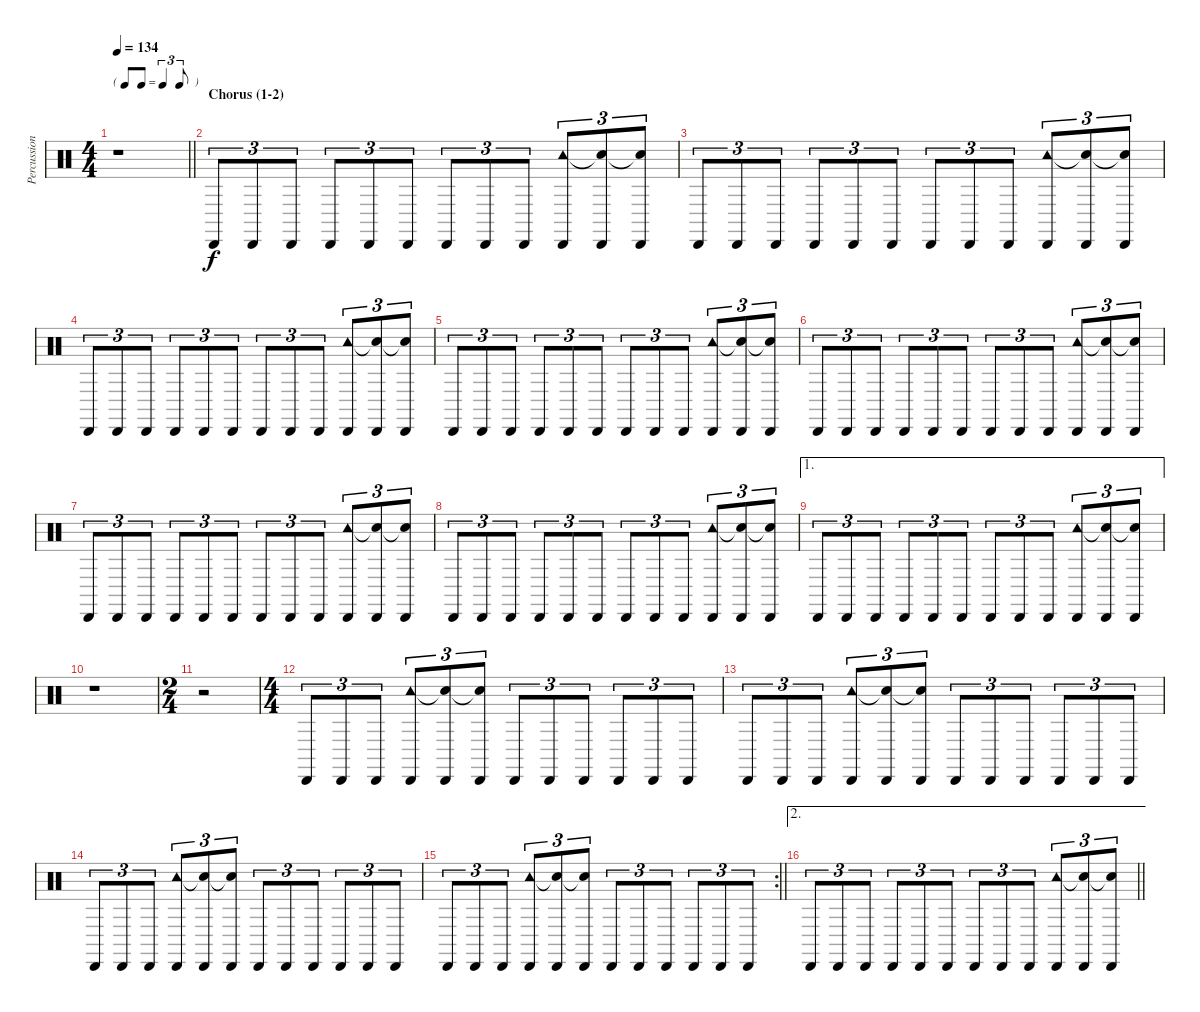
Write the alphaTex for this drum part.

\track ("Percussion" "Percussion") {instrument percussion}
\staff {score}
\articulation defaults
\ts (4 4)
\tf triplet8th
\tempo 134
\clef neutral
\barLineRight lightlight
\ks c
r.1{dy f} |
\section ("" "Chorus (1-2)")
"Cabasa (hit)".8{tu (3 2)} "Cabasa (hit)".8{tu (3 2)} "Cabasa (hit)".8{tu (3 2)} "Cabasa (hit)".8{tu (3 2)} "Cabasa (hit)".8{tu (3 2)} "Cabasa (hit)".8{tu (3 2)} "Cabasa (hit)".8{tu (3 2)} "Cabasa (hit)".8{tu (3 2)} "Cabasa (hit)".8{tu (3 2)} ("Cabasa (hit)" "Tambourine (hit)").8{tu (3 2)} ("Cabasa (hit)" "Snare (hit)"{t}).8{tu (3 2)} ("Cabasa (hit)" "Snare (hit)"{t}).8{tu (3 2)} |
"Cabasa (hit)".8{tu (3 2)} "Cabasa (hit)".8{tu (3 2)} "Cabasa (hit)".8{tu (3 2)} "Cabasa (hit)".8{tu (3 2)} "Cabasa (hit)".8{tu (3 2)} "Cabasa (hit)".8{tu (3 2)} "Cabasa (hit)".8{tu (3 2)} "Cabasa (hit)".8{tu (3 2)} "Cabasa (hit)".8{tu (3 2)} ("Cabasa (hit)" "Tambourine (hit)").8{tu (3 2)} ("Cabasa (hit)" "Snare (hit)"{t}).8{tu (3 2)} ("Cabasa (hit)" "Snare (hit)"{t}).8{tu (3 2)} |
"Cabasa (hit)".8{tu (3 2)} "Cabasa (hit)".8{tu (3 2)} "Cabasa (hit)".8{tu (3 2)} "Cabasa (hit)".8{tu (3 2)} "Cabasa (hit)".8{tu (3 2)} "Cabasa (hit)".8{tu (3 2)} "Cabasa (hit)".8{tu (3 2)} "Cabasa (hit)".8{tu (3 2)} "Cabasa (hit)".8{tu (3 2)} ("Cabasa (hit)" "Tambourine (hit)").8{tu (3 2)} ("Cabasa (hit)" "Snare (hit)"{t}).8{tu (3 2)} ("Cabasa (hit)" "Snare (hit)"{t}).8{tu (3 2)} |
"Cabasa (hit)".8{tu (3 2)} "Cabasa (hit)".8{tu (3 2)} "Cabasa (hit)".8{tu (3 2)} "Cabasa (hit)".8{tu (3 2)} "Cabasa (hit)".8{tu (3 2)} "Cabasa (hit)".8{tu (3 2)} "Cabasa (hit)".8{tu (3 2)} "Cabasa (hit)".8{tu (3 2)} "Cabasa (hit)".8{tu (3 2)} ("Cabasa (hit)" "Tambourine (hit)").8{tu (3 2)} ("Cabasa (hit)" "Snare (hit)"{t}).8{tu (3 2)} ("Cabasa (hit)" "Snare (hit)"{t}).8{tu (3 2)} |
"Cabasa (hit)".8{tu (3 2)} "Cabasa (hit)".8{tu (3 2)} "Cabasa (hit)".8{tu (3 2)} "Cabasa (hit)".8{tu (3 2)} "Cabasa (hit)".8{tu (3 2)} "Cabasa (hit)".8{tu (3 2)} "Cabasa (hit)".8{tu (3 2)} "Cabasa (hit)".8{tu (3 2)} "Cabasa (hit)".8{tu (3 2)} ("Cabasa (hit)" "Tambourine (hit)").8{tu (3 2)} ("Cabasa (hit)" "Snare (hit)"{t}).8{tu (3 2)} ("Cabasa (hit)" "Snare (hit)"{t}).8{tu (3 2)} |
"Cabasa (hit)".8{tu (3 2)} "Cabasa (hit)".8{tu (3 2)} "Cabasa (hit)".8{tu (3 2)} "Cabasa (hit)".8{tu (3 2)} "Cabasa (hit)".8{tu (3 2)} "Cabasa (hit)".8{tu (3 2)} "Cabasa (hit)".8{tu (3 2)} "Cabasa (hit)".8{tu (3 2)} "Cabasa (hit)".8{tu (3 2)} ("Cabasa (hit)" "Tambourine (hit)").8{tu (3 2)} ("Cabasa (hit)" "Snare (hit)"{t}).8{tu (3 2)} ("Cabasa (hit)" "Snare (hit)"{t}).8{tu (3 2)} |
"Cabasa (hit)".8{tu (3 2)} "Cabasa (hit)".8{tu (3 2)} "Cabasa (hit)".8{tu (3 2)} "Cabasa (hit)".8{tu (3 2)} "Cabasa (hit)".8{tu (3 2)} "Cabasa (hit)".8{tu (3 2)} "Cabasa (hit)".8{tu (3 2)} "Cabasa (hit)".8{tu (3 2)} "Cabasa (hit)".8{tu (3 2)} ("Cabasa (hit)" "Tambourine (hit)").8{tu (3 2)} ("Cabasa (hit)" "Snare (hit)"{t}).8{tu (3 2)} ("Cabasa (hit)" "Snare (hit)"{t}).8{tu (3 2)} |
\ae 1 "Cabasa (hit)".8{tu (3 2)} "Cabasa (hit)".8{tu (3 2)} "Cabasa (hit)".8{tu (3 2)} "Cabasa (hit)".8{tu (3 2)} "Cabasa (hit)".8{tu (3 2)} "Cabasa (hit)".8{tu (3 2)} "Cabasa (hit)".8{tu (3 2)} "Cabasa (hit)".8{tu (3 2)} "Cabasa (hit)".8{tu (3 2)}
("Cabasa (hit)" "Tambourine (hit)").8{tu (3 2)} ("Cabasa (hit)" "Snare (hit)"{t}).8{tu (3 2)} ("Cabasa (hit)" "Snare (hit)"{t}).8{tu (3 2)} |
r.1 |
\ts (2 4)
r.2 |
\ts (4 4)
"Cabasa (hit)".8{tu (3 2)} "Cabasa (hit)".8{tu (3 2)} "Cabasa (hit)".8{tu (3 2)} ("Cabasa (hit)" "Tambourine (hit)").8{tu (3 2)} ("Cabasa (hit)" "Snare (hit)"{t}).8{tu (3 2)} ("Cabasa (hit)" "Snare (hit)"{t}).8{tu (3 2)} "Cabasa (hit)".8{tu (3 2)} "Cabasa (hit)".8{tu (3 2)} "Cabasa (hit)".8{tu (3 2)} "Cabasa (hit)".8{tu (3 2)} "Cabasa (hit)".8{tu (3 2)} "Cabasa (hit)".8{tu (3 2)} |
"Cabasa (hit)".8{tu (3 2)} "Cabasa (hit)".8{tu (3 2)} "Cabasa (hit)".8{tu (3 2)} ("Cabasa (hit)" "Tambourine (hit)").8{tu (3 2)} ("Cabasa (hit)" "Snare (hit)"{t}).8{tu (3 2)} ("Cabasa (hit)" "Snare (hit)"{t}).8{tu (3 2)} "Cabasa (hit)".8{tu (3 2)} "Cabasa (hit)".8{tu (3 2)} "Cabasa (hit)".8{tu (3 2)} "Cabasa (hit)".8{tu (3 2)} "Cabasa (hit)".8{tu (3 2)} "Cabasa (hit)".8{tu (3 2)} |
"Cabasa (hit)".8{tu (3 2)} "Cabasa (hit)".8{tu (3 2)} "Cabasa (hit)".8{tu (3 2)} ("Cabasa (hit)" "Tambourine (hit)").8{tu (3 2)} ("Cabasa (hit)" "Snare (hit)"{t}).8{tu (3 2)} ("Cabasa (hit)" "Snare (hit)"{t}).8{tu (3 2)} "Cabasa (hit)".8{tu (3 2)} "Cabasa (hit)".8{tu (3 2)} "Cabasa (hit)".8{tu (3 2)} "Cabasa (hit)".8{tu (3 2)} "Cabasa (hit)".8{tu (3 2)} "Cabasa (hit)".8{tu (3 2)} |
\rc 2
\barLineRight lightlight "Cabasa (hit)".8{tu (3 2)} "Cabasa (hit)".8{tu (3 2)} "Cabasa (hit)".8{tu (3 2)}
("Cabasa (hit)" "Tambourine (hit)").8{tu (3 2)} ("Cabasa (hit)" "Snare (hit)"{t}).8{tu (3 2)} ("Cabasa (hit)" "Snare (hit)"{t}).8{tu (3 2)} "Cabasa (hit)".8{tu (3 2)} "Cabasa (hit)".8{tu (3 2)} "Cabasa (hit)".8{tu (3 2)} "Cabasa (hit)".8{tu (3 2)} "Cabasa (hit)".8{tu (3 2)} "Cabasa (hit)".8{tu (3 2)} |
\ae 2
\barLineRight lightlight "Cabasa (hit)".8{tu (3 2)} "Cabasa (hit)".8{tu (3 2)} "Cabasa (hit)".8{tu (3 2)} "Cabasa (hit)".8{tu (3 2)} "Cabasa (hit)".8{tu (3 2)} "Cabasa (hit)".8{tu (3 2)} "Cabasa (hit)".8{tu (3 2)} "Cabasa (hit)".8{tu (3 2)} "Cabasa (hit)".8{tu (3 2)}
("Cabasa (hit)" "Tambourine (hit)").8{tu (3 2)} ("Cabasa (hit)" "Snare (hit)"{t}).8{tu (3 2)} ("Cabasa (hit)" "Snare (hit)"{t}).8{tu (3 2)}
